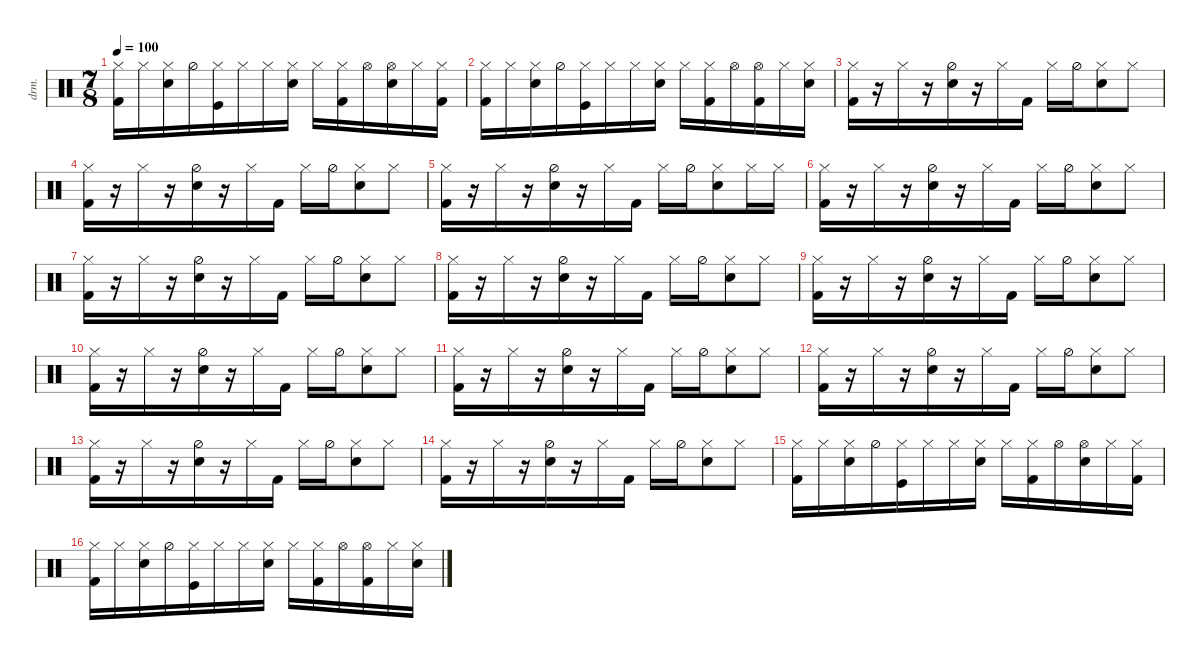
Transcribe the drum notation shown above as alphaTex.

\defaultSystemsLayout 4
\hideDynamics
\bracketExtendMode nobrackets
\otherSystemsTrackNameOrientation horizontal
\track ("Drumkit" "drm.") {instrument percussion}
\staff {score}
\articulation defaults
\ts (7 8)
\tempo 100
\clef neutral
\ks c
("Hi-Hat (closed)" "Kick (hit) 2").16{dy mf beam Down} "Hi-Hat (closed)".16{beam Down} ("Hi-Hat (closed)" "Snare (hit) 2").16{beam Down} "Hi-Hat (half)".16{beam Down} ("Hi-Hat (closed)" "Kick (hit)").16{beam Down} "Hi-Hat (closed)".16{beam Down} "Hi-Hat (closed)".16{beam Down} ("Hi-Hat (closed)" "Snare (hit) 2").16{beam Down} "Hi-Hat (closed)".16{beam Down} ("Hi-Hat (closed)" "Kick (hit) 2").16{beam Down} "Hi-Hat (open)".16{beam Down} ("Hi-Hat (open)" "Snare (hit) 2").16{beam Down} "Hi-Hat (closed)".16{beam Down} ("Hi-Hat (closed)" "Kick (hit) 2").16{beam Down} |
("Hi-Hat (closed)" "Kick (hit) 2").16{beam Down} "Hi-Hat (closed)".16{beam Down} ("Hi-Hat (closed)" "Snare (hit) 2").16{beam Down} "Hi-Hat (half)".16{beam Down} ("Hi-Hat (closed)" "Kick (hit)").16{beam Down} "Hi-Hat (closed)".16{beam Down} "Hi-Hat (closed)".16{beam Down} ("Hi-Hat (closed)" "Snare (hit) 2").16{beam Down} "Hi-Hat (closed)".16{beam Down} ("Hi-Hat (closed)" "Kick (hit) 2").16{beam Down} "Hi-Hat (open)".16{beam Down} ("Hi-Hat (open)" "Kick (hit) 2").16{beam Down} "Hi-Hat (closed)".16{beam Down} ("Hi-Hat (closed)" "Snare (hit) 2").16{beam Down} |
("Hi-Hat (closed)" "Kick (hit) 2").16{beam Down} r.16{beam Down} "Hi-Hat (closed)".16{beam Down} r.16{beam Down} ("Hi-Hat (half)" "Snare (hit) 2").16 r.16{beam Down} "Hi-Hat (closed)".16{beam Down} "Kick (hit) 2".16{beam Down} "Hi-Hat (closed)".16{beam Down} "Hi-Hat (half)".16 ("Snare (hit) 2" "Hi-Hat (closed)").8 "Hi-Hat (closed)".8 |
("Hi-Hat (closed)" "Kick (hit) 2").16{beam Down} r.16{beam Down} "Hi-Hat (closed)".16{beam Down} r.16{beam Down} ("Hi-Hat (half)" "Snare (hit) 2").16 r.16{beam Down} "Hi-Hat (closed)".16{beam Down} "Kick (hit) 2".16{beam Down} "Hi-Hat (closed)".16{beam Down} "Hi-Hat (half)".16 ("Snare (hit) 2" "Hi-Hat (closed)").8 "Hi-Hat (closed)".8 |
("Hi-Hat (closed)" "Kick (hit) 2").16{beam Down} r.16{beam Down} "Hi-Hat (closed)".16{beam Down} r.16{beam Down} ("Hi-Hat (half)" "Snare (hit) 2").16 r.16{beam Down} "Hi-Hat (closed)".16{beam Down} "Kick (hit) 2".16{beam Down} "Hi-Hat (closed)".16{beam Down} "Hi-Hat (half)".16 ("Snare (hit) 2" "Hi-Hat (closed)").8 "Hi-Hat (closed)".16 "Hi-Hat (closed)".16 |
("Hi-Hat (closed)" "Kick (hit) 2").16{beam Down} r.16{beam Down} "Hi-Hat (closed)".16{beam Down} r.16{beam Down} ("Hi-Hat (half)" "Snare (hit) 2").16 r.16{beam Down} "Hi-Hat (closed)".16{beam Down} "Kick (hit) 2".16{beam Down} "Hi-Hat (closed)".16{beam Down} "Hi-Hat (half)".16 ("Snare (hit) 2" "Hi-Hat (closed)").8 "Hi-Hat (closed)".8 |
("Hi-Hat (closed)" "Kick (hit) 2").16{beam Down} r.16{beam Down} "Hi-Hat (closed)".16{beam Down} r.16{beam Down} ("Hi-Hat (half)" "Snare (hit) 2").16 r.16{beam Down} "Hi-Hat (closed)".16{beam Down} "Kick (hit) 2".16{beam Down} "Hi-Hat (closed)".16{beam Down} "Hi-Hat (half)".16 ("Snare (hit) 2" "Hi-Hat (closed)").8 "Hi-Hat (closed)".8 |
("Hi-Hat (closed)" "Kick (hit) 2").16{beam Down} r.16{beam Down} "Hi-Hat (closed)".16{beam Down} r.16{beam Down} ("Hi-Hat (half)" "Snare (hit) 2").16 r.16{beam Down} "Hi-Hat (closed)".16{beam Down} "Kick (hit) 2".16{beam Down} "Hi-Hat (closed)".16{beam Down} "Hi-Hat (half)".16 ("Snare (hit) 2" "Hi-Hat (closed)").8 "Hi-Hat (closed)".8 |
("Hi-Hat (closed)" "Kick (hit) 2").16{beam Down} r.16{beam Down} "Hi-Hat (closed)".16{beam Down} r.16{beam Down} ("Hi-Hat (half)" "Snare (hit) 2").16 r.16{beam Down} "Hi-Hat (closed)".16{beam Down} "Kick (hit) 2".16{beam Down} "Hi-Hat (closed)".16{beam Down} "Hi-Hat (half)".16 ("Snare (hit) 2" "Hi-Hat (closed)").8 "Hi-Hat (closed)".8 |
("Hi-Hat (closed)" "Kick (hit) 2").16{beam Down} r.16{beam Down} "Hi-Hat (closed)".16{beam Down} r.16{beam Down} ("Hi-Hat (half)" "Snare (hit) 2").16 r.16{beam Down} "Hi-Hat (closed)".16{beam Down} "Kick (hit) 2".16{beam Down} "Hi-Hat (closed)".16{beam Down} "Hi-Hat (half)".16 ("Snare (hit) 2" "Hi-Hat (closed)").8 "Hi-Hat (closed)".8 |
("Hi-Hat (closed)" "Kick (hit) 2").16{beam Down} r.16{beam Down} "Hi-Hat (closed)".16{beam Down} r.16{beam Down} ("Hi-Hat (half)" "Snare (hit) 2").16 r.16{beam Down} "Hi-Hat (closed)".16{beam Down} "Kick (hit) 2".16{beam Down} "Hi-Hat (closed)".16{beam Down} "Hi-Hat (half)".16 ("Snare (hit) 2" "Hi-Hat (closed)").8 "Hi-Hat (closed)".8 |
("Hi-Hat (closed)" "Kick (hit) 2").16{beam Down} r.16{beam Down} "Hi-Hat (closed)".16{beam Down} r.16{beam Down} ("Hi-Hat (half)" "Snare (hit) 2").16 r.16{beam Down} "Hi-Hat (closed)".16{beam Down} "Kick (hit) 2".16{beam Down} "Hi-Hat (closed)".16{beam Down} "Hi-Hat (half)".16 ("Snare (hit) 2" "Hi-Hat (closed)").8 "Hi-Hat (closed)".8 |
("Hi-Hat (closed)" "Kick (hit) 2").16{beam Down} r.16{beam Down} "Hi-Hat (closed)".16{beam Down} r.16{beam Down} ("Hi-Hat (half)" "Snare (hit) 2").16 r.16{beam Down} "Hi-Hat (closed)".16{beam Down} "Kick (hit) 2".16{beam Down} "Hi-Hat (closed)".16{beam Down} "Hi-Hat (half)".16 ("Snare (hit) 2" "Hi-Hat (closed)").8 "Hi-Hat (closed)".8 |
("Hi-Hat (closed)" "Kick (hit) 2").16{beam Down} r.16{beam Down} "Hi-Hat (closed)".16{beam Down} r.16{beam Down} ("Hi-Hat (half)" "Snare (hit) 2").16 r.16{beam Down} "Hi-Hat (closed)".16{beam Down} "Kick (hit) 2".16{beam Down} "Hi-Hat (closed)".16{beam Down} "Hi-Hat (half)".16 ("Snare (hit) 2" "Hi-Hat (closed)").8 "Hi-Hat (closed)".8 |
("Hi-Hat (closed)" "Kick (hit) 2").16{beam Down} "Hi-Hat (closed)".16{beam Down} ("Hi-Hat (closed)" "Snare (hit) 2").16{beam Down} "Hi-Hat (half)".16{beam Down} ("Hi-Hat (closed)" "Kick (hit)").16{beam Down} "Hi-Hat (closed)".16{beam Down} "Hi-Hat (closed)".16{beam Down} ("Hi-Hat (closed)" "Snare (hit) 2").16{beam Down} "Hi-Hat (closed)".16{beam Down} ("Hi-Hat (closed)" "Kick (hit) 2").16{beam Down} "Hi-Hat (open)".16{beam Down} ("Hi-Hat (open)" "Snare (hit) 2").16{beam Down} "Hi-Hat (closed)".16{beam Down} ("Hi-Hat (closed)" "Kick (hit) 2").16{beam Down} |
("Hi-Hat (closed)" "Kick (hit) 2").16{beam Down} "Hi-Hat (closed)".16{beam Down} ("Hi-Hat (closed)" "Snare (hit) 2").16{beam Down} "Hi-Hat (half)".16{beam Down} ("Hi-Hat (closed)" "Kick (hit)").16{beam Down} "Hi-Hat (closed)".16{beam Down} "Hi-Hat (closed)".16{beam Down} ("Hi-Hat (closed)" "Snare (hit) 2").16{beam Down} "Hi-Hat (closed)".16{beam Down} ("Hi-Hat (closed)" "Kick (hit) 2").16{beam Down} "Hi-Hat (open)".16{beam Down} ("Hi-Hat (open)" "Kick (hit) 2").16{beam Down} "Hi-Hat (closed)".16{beam Down} ("Hi-Hat (closed)" "Snare (hit) 2").16{beam Down}
